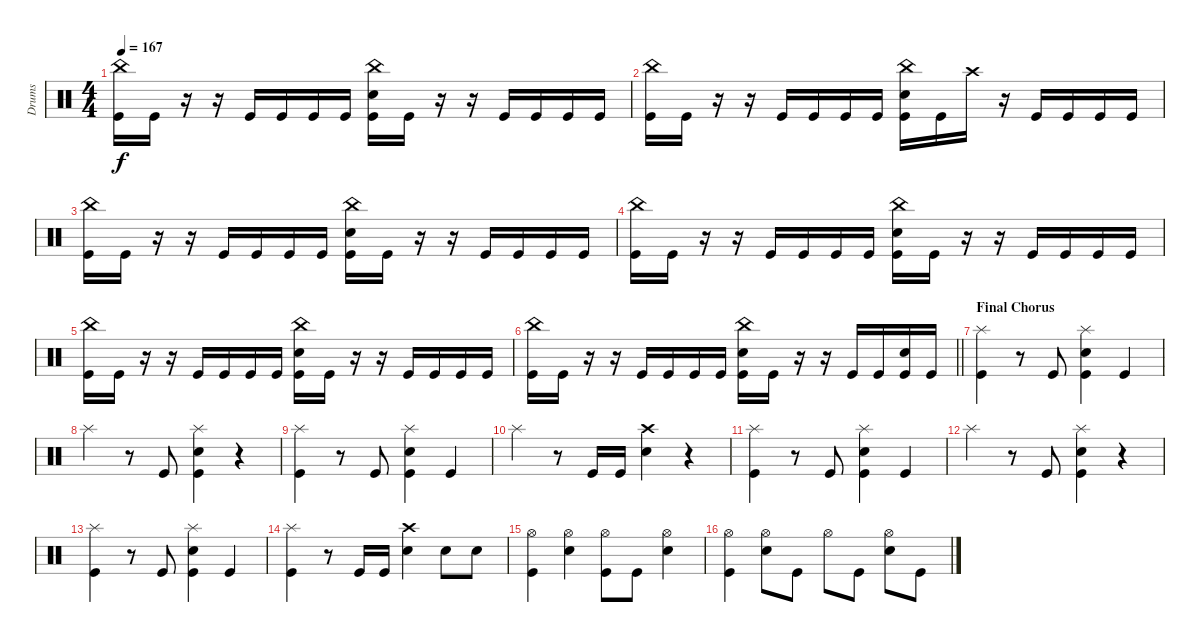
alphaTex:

\track ("Drums" "Drums") {instrument percussion}
\staff {score}
\articulation defaults
\ts (4 4)
\tempo 167
\clef neutral
\ks c
("China (hit)" "Kick (hit)").16{dy f} "Kick (hit)".16 r.16 r.16 "Kick (hit)".16 "Kick (hit)".16 "Kick (hit)".16 "Kick (hit)".16 ("China (hit)" "Snare (hit) 2" "Kick (hit)").16 "Kick (hit)".16 r.16 r.16 "Kick (hit)".16 "Kick (hit)".16 "Kick (hit)".16 "Kick (hit)".16 |
("China (hit)" "Kick (hit)").16 "Kick (hit)".16 r.16 r.16 "Kick (hit)".16 "Kick (hit)".16 "Kick (hit)".16 "Kick (hit)".16 ("China (hit)" "Snare (hit) 2" "Kick (hit)").16 "Kick (hit)".16 "Crash high (hit)".16 r.16 "Kick (hit)".16 "Kick (hit)".16 "Kick (hit)".16 "Kick (hit)".16 |
("China (hit)" "Kick (hit)").16 "Kick (hit)".16 r.16 r.16 "Kick (hit)".16 "Kick (hit)".16 "Kick (hit)".16 "Kick (hit)".16 ("China (hit)" "Snare (hit) 2" "Kick (hit)").16 "Kick (hit)".16 r.16 r.16 "Kick (hit)".16 "Kick (hit)".16 "Kick (hit)".16 "Kick (hit)".16 |
("China (hit)" "Kick (hit)").16 "Kick (hit)".16 r.16 r.16 "Kick (hit)".16 "Kick (hit)".16 "Kick (hit)".16 "Kick (hit)".16 ("China (hit)" "Snare (hit) 2" "Kick (hit)").16 "Kick (hit)".16 r.16 r.16 "Kick (hit)".16 "Kick (hit)".16 "Kick (hit)".16 "Kick (hit)".16 |
("China (hit)" "Kick (hit)").16 "Kick (hit)".16 r.16 r.16 "Kick (hit)".16 "Kick (hit)".16 "Kick (hit)".16 "Kick (hit)".16 ("China (hit)" "Snare (hit) 2" "Kick (hit)").16 "Kick (hit)".16 r.16 r.16 "Kick (hit)".16 "Kick (hit)".16 "Kick (hit)".16 "Kick (hit)".16 |
\barLineRight lightlight
("China (hit)" "Kick (hit)").16 "Kick (hit)".16 r.16 r.16 "Kick (hit)".16 "Kick (hit)".16 "Kick (hit)".16 "Kick (hit)".16 ("China (hit)" "Snare (hit) 2" "Kick (hit)").16 "Kick (hit)".16 r.16 r.16 "Kick (hit)".16 "Kick (hit)".16 ("Snare (hit) 2" "Kick (hit)").16 "Kick (hit)".16 |
\section ("" "Final Chorus")
("Splash (hit)" "Kick (hit)").4 r.8 "Kick (hit)".8 ("Splash (hit)" "Snare (hit) 2" "Kick (hit)").4 "Kick (hit)".4 |
"Splash (hit)".4 r.8 "Kick (hit)".8 ("Splash (hit)" "Snare (hit) 2" "Kick (hit)").4 r.4 |
("Splash (hit)" "Kick (hit)").4 r.8 "Kick (hit)".8 ("Splash (hit)" "Snare (hit) 2" "Kick (hit)").4 "Kick (hit)".4 |
"Splash (hit)".4 r.8 "Kick (hit)".16 "Kick (hit)".16 ("Crash high (hit)" "Snare (hit) 2").4 r.4 |
("Splash (hit)" "Kick (hit)").4 r.8 "Kick (hit)".8 ("Splash (hit)" "Snare (hit) 2" "Kick (hit)").4 "Kick (hit)".4 |
"Splash (hit)".4 r.8 "Kick (hit)".8 ("Splash (hit)" "Snare (hit) 2" "Kick (hit)").4 r.4 |
("Splash (hit)" "Kick (hit)").4 r.8 "Kick (hit)".8 ("Splash (hit)" "Snare (hit) 2" "Kick (hit)").4 "Kick (hit)".4 |
("Splash (hit)" "Kick (hit)").4 r.8 "Kick (hit)".16 "Kick (hit)".16 ("Crash high (hit)" "Snare (hit) 2").4 "Snare (hit) 2".8 "Snare (hit) 2".8 |
("Hi-Hat (open)" "Kick (hit)").4 ("Hi-Hat (open)" "Snare (hit) 2").4 ("Hi-Hat (open)" "Kick (hit)").8 "Kick (hit)".8 ("Hi-Hat (open)" "Snare (hit) 2").4 |
("Hi-Hat (open)" "Kick (hit)").4 ("Hi-Hat (open)" "Snare (hit) 2").8 "Kick (hit)".8 "Hi-Hat (open)".8 "Kick (hit)".8 ("Hi-Hat (open)" "Snare (hit) 2").8 "Kick (hit)".8
